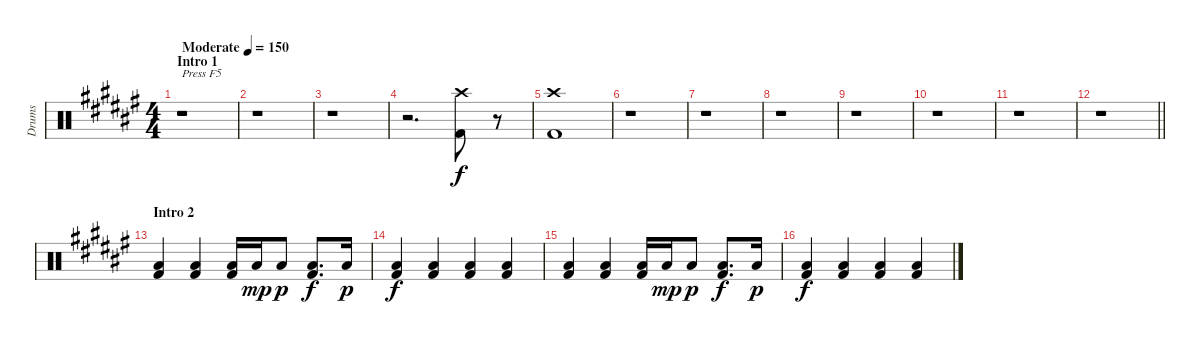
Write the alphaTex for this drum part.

\track ("Drums" "Drums") {instrument percussion}
\staff {score}
\articulation defaults
\ts (4 4)
\section ("" "Intro 1")
\tempo (150 "Moderate")
\clef neutral
\ks f#
r.1{txt "Press F5" dy f} |
r.1 |
r.1 |
r.2{d} ("Crash high (hit)" "Kick (hit) 2").8 r.8{volume 3} |
("Crash high (hit)" "Kick (hit) 2").1{volume 13} |
r.1 |
r.1 |
r.1 |
r.1 |
r.1 |
r.1 |
\barLineRight lightlight
r.1 |
\section ("" "Intro 2")
("Low Floor Tom (hit)" "Kick (hit) 2").4 ("Low Floor Tom (hit)" "Kick (hit) 2").4 ("Low Floor Tom (hit)" "Kick (hit) 2").16 "Low Floor Tom (hit)".16{dy mp} "Low Floor Tom (hit)".8{dy p} ("Low Floor Tom (hit)" "Kick (hit) 2").8{d dy f} "Low Floor Tom (hit)".16{dy p} |
("Low Floor Tom (hit)" "Kick (hit) 2").4{dy f} ("Low Floor Tom (hit)" "Kick (hit) 2").4 ("Low Floor Tom (hit)" "Kick (hit) 2").4 ("Low Floor Tom (hit)" "Kick (hit) 2").4 |
("Low Floor Tom (hit)" "Kick (hit) 2").4 ("Low Floor Tom (hit)" "Kick (hit) 2").4 ("Low Floor Tom (hit)" "Kick (hit) 2").16 "Low Floor Tom (hit)".16{dy mp} "Low Floor Tom (hit)".8{dy p} ("Low Floor Tom (hit)" "Kick (hit) 2").8{d dy f} "Low Floor Tom (hit)".16{dy p} |
("Low Floor Tom (hit)" "Kick (hit) 2").4{dy f} ("Low Floor Tom (hit)" "Kick (hit) 2").4 ("Low Floor Tom (hit)" "Kick (hit) 2").4 ("Low Floor Tom (hit)" "Kick (hit) 2").4
